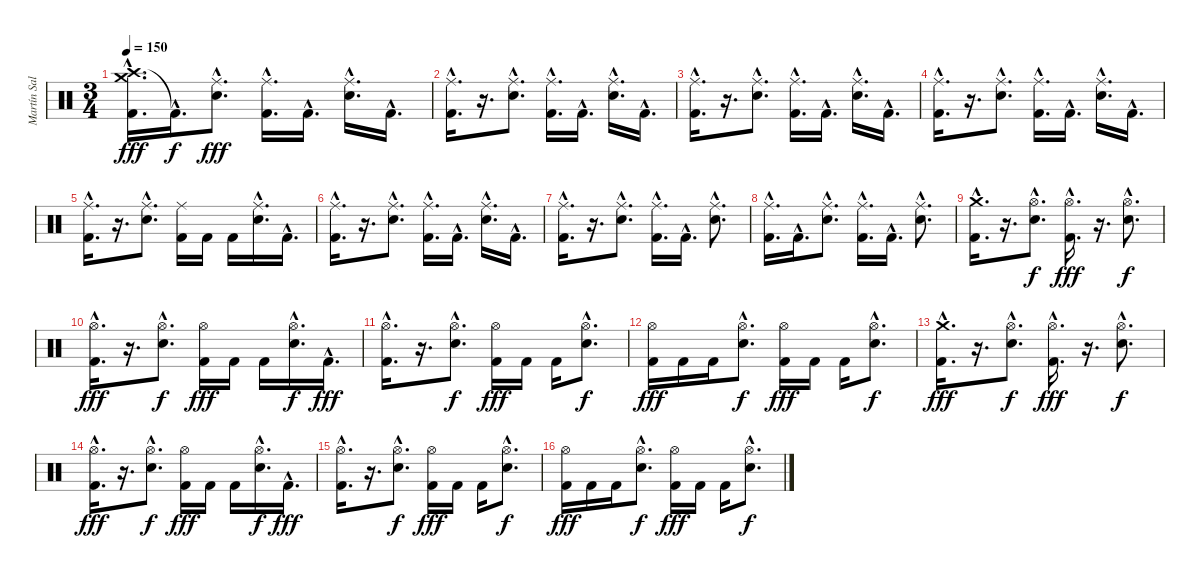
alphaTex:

\track ("Martín Salariato" "Martín Sal") {instrument percussion}
\staff {score}
\articulation defaults
\ts (3 4)
\tempo 150
\clef neutral
\ks c
("Crash high (hit)"{hac} "Crash medium (hit)"{hac} "Kick (hit) 2"{hac}).16{d dy fff} "Kick (hit) 2"{hac t}.16{d dy f} ("Ride (middle)"{hac} "Snare (hit) 2"{hac}).8{d dy fff} ("Ride (middle)"{hac} "Kick (hit) 2"{hac}).16{d} "Kick (hit) 2"{hac}.16{d} ("Ride (middle)"{hac} "Snare (hit) 2"{hac}).16{d} "Kick (hit) 2"{hac}.16{d} |
("Ride (middle)"{hac} "Kick (hit) 2"{hac}).16{d} r.16{d} ("Ride (middle)"{hac} "Snare (hit) 2"{hac}).8{d} ("Ride (middle)"{hac} "Kick (hit) 2"{hac}).16{d} "Kick (hit) 2"{hac}.16{d} ("Ride (middle)"{hac} "Snare (hit) 2"{hac}).16{d} "Kick (hit) 2"{hac}.16{d} |
("Ride (middle)"{hac} "Kick (hit) 2"{hac}).16{d} r.16{d} ("Ride (middle)"{hac} "Snare (hit) 2"{hac}).8{d} ("Ride (middle)"{hac} "Kick (hit) 2"{hac}).16{d} "Kick (hit) 2"{hac}.16{d} ("Ride (middle)"{hac} "Snare (hit) 2"{hac}).16{d} "Kick (hit) 2"{hac}.16{d} |
("Ride (middle)"{hac} "Kick (hit) 2"{hac}).16{d} r.16{d} ("Ride (middle)"{hac} "Snare (hit) 2"{hac}).8{d} ("Ride (middle)"{hac} "Kick (hit) 2"{hac}).16{d} "Kick (hit) 2"{hac}.16{d} ("Ride (middle)"{hac} "Snare (hit) 2"{hac}).16{d} "Kick (hit) 2"{hac}.16{d} |
("Ride (middle)"{hac} "Kick (hit) 2"{hac}).16{d} r.16{d} ("Ride (middle)"{hac} "Snare (hit) 2"{hac}).8{d} ("Ride (middle)" "Kick (hit) 2").16 "Kick (hit) 2".16 "Kick (hit) 2".16 ("Ride (middle)"{hac} "Snare (hit) 2"{hac}).16{d} "Kick (hit) 2"{hac}.16{d} |
("Ride (middle)"{hac} "Kick (hit) 2"{hac}).16{d} r.16{d} ("Ride (middle)"{hac} "Snare (hit) 2"{hac}).8{d} ("Ride (middle)"{hac} "Kick (hit) 2"{hac}).16{d} "Kick (hit) 2"{hac}.16{d} ("Ride (middle)"{hac} "Snare (hit) 2"{hac}).16{d} "Kick (hit) 2"{hac}.16{d} |
("Ride (middle)"{hac} "Kick (hit) 2"{hac}).16{d} r.16{d} ("Ride (middle)"{hac} "Snare (hit) 2"{hac}).8{d} ("Ride (middle)"{hac} "Kick (hit) 2"{hac}).16{d} "Kick (hit) 2"{hac}.16{d} ("Ride (middle)"{hac} "Snare (hit) 2"{hac}).8{d} |
("Ride (middle)"{hac} "Kick (hit) 2"{hac}).16{d} "Kick (hit) 2"{hac}.16{d} ("Ride (middle)"{hac} "Snare (hit) 2"{hac}).8{d} ("Ride (middle)"{hac} "Kick (hit) 2"{hac}).16{d} "Kick (hit) 2"{hac}.16{d} ("Ride (middle)"{hac} "Snare (hit) 2"{hac}).8{d} |
("Crash medium (hit)"{hac} "Kick (hit) 2"{hac}).16{d} r.16{d} ("Hi-Hat (open)"{hac} "Snare (hit) 2"{hac}).8{d dy f} ("Hi-Hat (open)"{hac} "Kick (hit) 2"{hac}).16{d dy fff} r.16{d} ("Hi-Hat (open)"{hac} "Snare (hit) 2"{hac}).8{d dy f} |
("Hi-Hat (open)"{hac} "Kick (hit) 2"{hac}).16{d dy fff} r.16{d} ("Hi-Hat (open)"{hac} "Snare (hit) 2"{hac}).8{d dy f} ("Hi-Hat (open)" "Kick (hit) 2").16{dy fff} "Kick (hit) 2".16 "Kick (hit) 2".16 ("Hi-Hat (open)"{hac} "Snare (hit) 2"{hac}).16{d dy f} "Kick (hit) 2"{hac}.16{d dy fff} |
("Hi-Hat (open)"{hac} "Kick (hit) 2"{hac}).16{d} r.16{d} ("Hi-Hat (open)"{hac} "Snare (hit) 2"{hac}).8{d dy f} ("Hi-Hat (open)" "Kick (hit) 2").16{dy fff} "Kick (hit) 2".16 "Kick (hit) 2".16 ("Hi-Hat (open)"{hac} "Snare (hit) 2"{hac}).8{d dy f} |
("Hi-Hat (open)" "Kick (hit) 2").16{dy fff} "Kick (hit) 2".16 "Kick (hit) 2".16 ("Hi-Hat (open)"{hac} "Snare (hit) 2"{hac}).8{d dy f} ("Hi-Hat (open)" "Kick (hit) 2").16{dy fff} "Kick (hit) 2".16 "Kick (hit) 2".16 ("Hi-Hat (open)"{hac} "Snare (hit) 2"{hac}).8{d dy f} |
("Crash medium (hit)"{hac} "Kick (hit) 2"{hac}).16{d dy fff} r.16{d} ("Hi-Hat (open)"{hac} "Snare (hit) 2"{hac}).8{d dy f} ("Hi-Hat (open)"{hac} "Kick (hit) 2"{hac}).16{d dy fff} r.16{d} ("Hi-Hat (open)"{hac} "Snare (hit) 2"{hac}).8{d dy f} |
("Hi-Hat (open)"{hac} "Kick (hit) 2"{hac}).16{d dy fff} r.16{d} ("Hi-Hat (open)"{hac} "Snare (hit) 2"{hac}).8{d dy f} ("Hi-Hat (open)" "Kick (hit) 2").16{dy fff} "Kick (hit) 2".16 "Kick (hit) 2".16 ("Hi-Hat (open)"{hac} "Snare (hit) 2"{hac}).16{d dy f} "Kick (hit) 2"{hac}.16{d dy fff} |
("Hi-Hat (open)"{hac} "Kick (hit) 2"{hac}).16{d} r.16{d} ("Hi-Hat (open)"{hac} "Snare (hit) 2"{hac}).8{d dy f} ("Hi-Hat (open)" "Kick (hit) 2").16{dy fff} "Kick (hit) 2".16 "Kick (hit) 2".16 ("Hi-Hat (open)"{hac} "Snare (hit) 2"{hac}).8{d dy f} |
("Hi-Hat (open)" "Kick (hit) 2").16{dy fff} "Kick (hit) 2".16 "Kick (hit) 2".16 ("Hi-Hat (open)"{hac} "Snare (hit) 2"{hac}).8{d dy f} ("Hi-Hat (open)" "Kick (hit) 2").16{dy fff} "Kick (hit) 2".16 "Kick (hit) 2".16 ("Hi-Hat (open)"{hac} "Snare (hit) 2"{hac}).8{d dy f}
